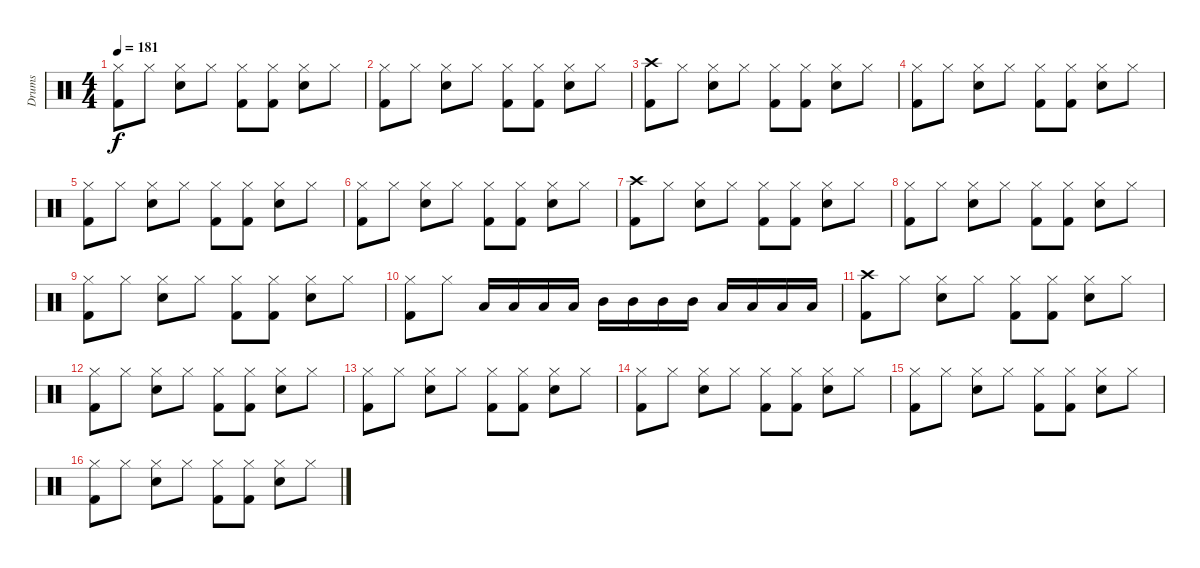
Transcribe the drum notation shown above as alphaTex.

\track ("Drums" "Drums") {instrument percussion}
\staff {score}
\articulation defaults
\ts (4 4)
\tempo 181
\clef neutral
\ks c
("Hi-Hat (closed)" "Kick (hit) 2").8{dy f} "Hi-Hat (closed)".8 ("Hi-Hat (closed)" "Snare (hit) 2").8 "Hi-Hat (closed)".8 ("Hi-Hat (closed)" "Kick (hit) 2").8 ("Hi-Hat (closed)" "Kick (hit) 2").8 ("Hi-Hat (closed)" "Snare (hit) 2").8 "Hi-Hat (closed)".8 |
("Hi-Hat (closed)" "Kick (hit) 2").8 "Hi-Hat (closed)".8 ("Hi-Hat (closed)" "Snare (hit) 2").8 "Hi-Hat (closed)".8 ("Hi-Hat (closed)" "Kick (hit) 2").8 ("Hi-Hat (closed)" "Kick (hit) 2").8 ("Hi-Hat (closed)" "Snare (hit) 2").8 "Hi-Hat (closed)".8 |
("Crash high (hit)" "Kick (hit) 2").8 "Hi-Hat (closed)".8 ("Hi-Hat (closed)" "Snare (hit) 2").8 "Hi-Hat (closed)".8 ("Hi-Hat (closed)" "Kick (hit) 2").8 ("Hi-Hat (closed)" "Kick (hit) 2").8 ("Hi-Hat (closed)" "Snare (hit) 2").8 "Hi-Hat (closed)".8 |
("Hi-Hat (closed)" "Kick (hit) 2").8 "Hi-Hat (closed)".8 ("Hi-Hat (closed)" "Snare (hit) 2").8 "Hi-Hat (closed)".8 ("Hi-Hat (closed)" "Kick (hit) 2").8 ("Hi-Hat (closed)" "Kick (hit) 2").8 ("Hi-Hat (closed)" "Snare (hit) 2").8 "Hi-Hat (closed)".8 |
("Hi-Hat (closed)" "Kick (hit) 2").8 "Hi-Hat (closed)".8 ("Hi-Hat (closed)" "Snare (hit) 2").8 "Hi-Hat (closed)".8 ("Hi-Hat (closed)" "Kick (hit) 2").8 ("Hi-Hat (closed)" "Kick (hit) 2").8 ("Hi-Hat (closed)" "Snare (hit) 2").8 "Hi-Hat (closed)".8 |
("Hi-Hat (closed)" "Kick (hit) 2").8 "Hi-Hat (closed)".8 ("Hi-Hat (closed)" "Snare (hit) 2").8 "Hi-Hat (closed)".8 ("Hi-Hat (closed)" "Kick (hit) 2").8 ("Hi-Hat (closed)" "Kick (hit) 2").8 ("Hi-Hat (closed)" "Snare (hit) 2").8 "Hi-Hat (closed)".8 |
("Crash high (hit)" "Kick (hit) 2").8 "Hi-Hat (closed)".8 ("Hi-Hat (closed)" "Snare (hit) 2").8 "Hi-Hat (closed)".8 ("Hi-Hat (closed)" "Kick (hit) 2").8 ("Hi-Hat (closed)" "Kick (hit) 2").8 ("Hi-Hat (closed)" "Snare (hit) 2").8 "Hi-Hat (closed)".8 |
("Hi-Hat (closed)" "Kick (hit) 2").8 "Hi-Hat (closed)".8 ("Hi-Hat (closed)" "Snare (hit) 2").8 "Hi-Hat (closed)".8 ("Hi-Hat (closed)" "Kick (hit) 2").8 ("Hi-Hat (closed)" "Kick (hit) 2").8 ("Hi-Hat (closed)" "Snare (hit) 2").8 "Hi-Hat (closed)".8 |
("Hi-Hat (closed)" "Kick (hit) 2").8 "Hi-Hat (closed)".8 ("Hi-Hat (closed)" "Snare (hit) 2").8 "Hi-Hat (closed)".8 ("Hi-Hat (closed)" "Kick (hit) 2").8 ("Hi-Hat (closed)" "Kick (hit) 2").8 ("Hi-Hat (closed)" "Snare (hit) 2").8 "Hi-Hat (closed)".8 |
("Hi-Hat (closed)" "Kick (hit) 2").8 "Hi-Hat (closed)".8 "Low Tom (hit)".16 "Low Tom (hit)".16 "Low Tom (hit)".16 "Low Tom (hit)".16 "Mid Tom (hit)".16 "Mid Tom (hit)".16 "Mid Tom (hit)".16 "Mid Tom (hit)".16 "Low Tom (hit)".16 "Low Tom (hit)".16 "Low Tom (hit)".16 "Low Tom (hit)".16 |
("Crash high (hit)" "Kick (hit) 2").8 "Hi-Hat (closed)".8 ("Hi-Hat (closed)" "Snare (hit) 2").8 "Hi-Hat (closed)".8 ("Hi-Hat (closed)" "Kick (hit) 2").8 ("Hi-Hat (closed)" "Kick (hit) 2").8 ("Hi-Hat (closed)" "Snare (hit) 2").8 "Hi-Hat (closed)".8 |
("Hi-Hat (closed)" "Kick (hit) 2").8 "Hi-Hat (closed)".8 ("Hi-Hat (closed)" "Snare (hit) 2").8 "Hi-Hat (closed)".8 ("Hi-Hat (closed)" "Kick (hit) 2").8 ("Hi-Hat (closed)" "Kick (hit) 2").8 ("Hi-Hat (closed)" "Snare (hit) 2").8 "Hi-Hat (closed)".8 |
("Hi-Hat (closed)" "Kick (hit) 2").8 "Hi-Hat (closed)".8 ("Hi-Hat (closed)" "Snare (hit) 2").8 "Hi-Hat (closed)".8 ("Hi-Hat (closed)" "Kick (hit) 2").8 ("Hi-Hat (closed)" "Kick (hit) 2").8 ("Hi-Hat (closed)" "Snare (hit) 2").8 "Hi-Hat (closed)".8 |
("Hi-Hat (closed)" "Kick (hit) 2").8 "Hi-Hat (closed)".8 ("Hi-Hat (closed)" "Snare (hit) 2").8 "Hi-Hat (closed)".8 ("Hi-Hat (closed)" "Kick (hit) 2").8 ("Hi-Hat (closed)" "Kick (hit) 2").8 ("Hi-Hat (closed)" "Snare (hit) 2").8 "Hi-Hat (closed)".8 |
("Hi-Hat (closed)" "Kick (hit) 2").8 "Hi-Hat (closed)".8 ("Hi-Hat (closed)" "Snare (hit) 2").8 "Hi-Hat (closed)".8 ("Hi-Hat (closed)" "Kick (hit) 2").8 ("Hi-Hat (closed)" "Kick (hit) 2").8 ("Hi-Hat (closed)" "Snare (hit) 2").8 "Hi-Hat (closed)".8 |
("Hi-Hat (closed)" "Kick (hit) 2").8 "Hi-Hat (closed)".8 ("Hi-Hat (closed)" "Snare (hit) 2").8 "Hi-Hat (closed)".8 ("Hi-Hat (closed)" "Kick (hit) 2").8 ("Hi-Hat (closed)" "Kick (hit) 2").8 ("Hi-Hat (closed)" "Snare (hit) 2").8 "Hi-Hat (closed)".8
